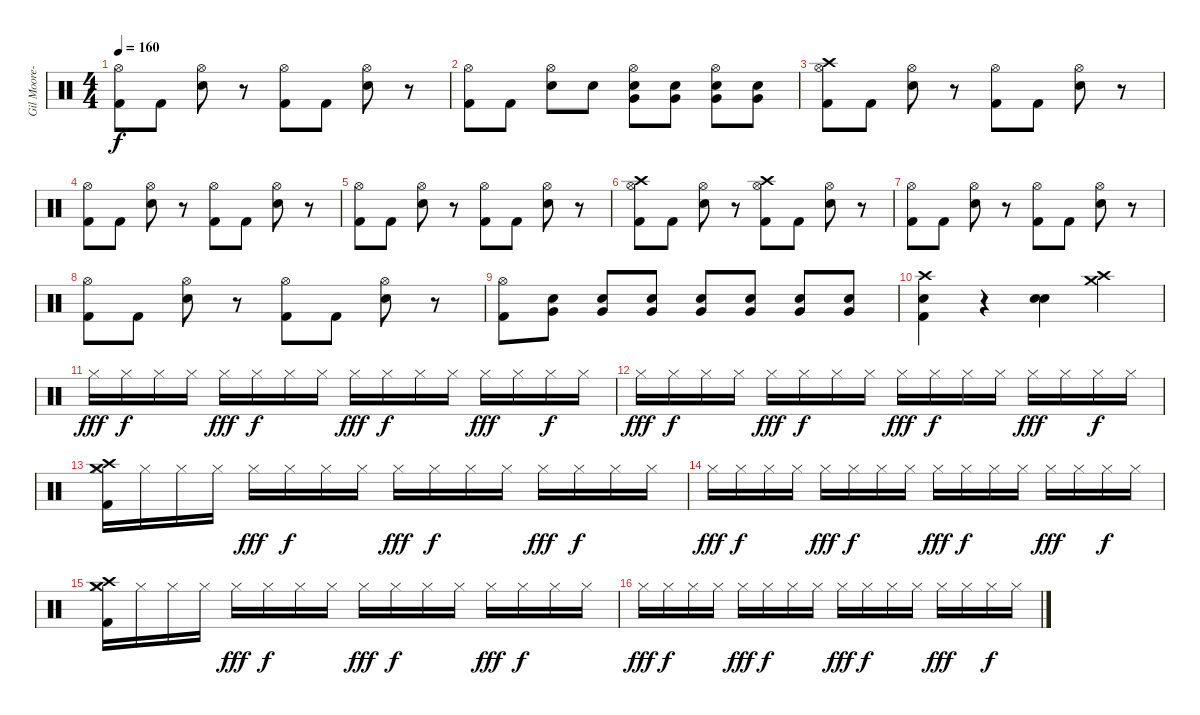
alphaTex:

\track ("Gil Moore-Drums n Vocals" "Gil Moore-") {instrument percussion}
\staff {score}
\articulation defaults
\ts (4 4)
\tempo 160
\clef neutral
\ks c
("Kick (hit) 2" "Hi-Hat (open)").8{dy f} "Kick (hit) 2".8 ("Electric Snare (hit)" "Hi-Hat (open)").8 r.8 ("Kick (hit) 2" "Hi-Hat (open)").8 "Kick (hit) 2".8 ("Electric Snare (hit)" "Hi-Hat (open)").8 r.8 |
("Kick (hit) 2" "Hi-Hat (open)").8 "Kick (hit) 2".8 ("Electric Snare (hit)" "Hi-Hat (open)").8 "Electric Snare (hit)".8 ("Electric Snare (hit)" "Very Low Tom (hit)" "Hi-Hat (open)").8 ("Electric Snare (hit)" "Very Low Tom (hit)").8 ("Electric Snare (hit)" "Very Low Tom (hit)" "Hi-Hat (open)").8 ("Electric Snare (hit)" "Very Low Tom (hit)").8 |
("Kick (hit) 2" "Hi-Hat (open)" "Crash high (hit)").8 "Kick (hit) 2".8 ("Electric Snare (hit)" "Hi-Hat (open)").8 r.8 ("Kick (hit) 2" "Hi-Hat (open)").8 "Kick (hit) 2".8 ("Electric Snare (hit)" "Hi-Hat (open)").8 r.8 |
("Kick (hit) 2" "Hi-Hat (open)").8 "Kick (hit) 2".8 ("Electric Snare (hit)" "Hi-Hat (open)").8 r.8 ("Kick (hit) 2" "Hi-Hat (open)").8 "Kick (hit) 2".8 ("Electric Snare (hit)" "Hi-Hat (open)").8 r.8 |
("Kick (hit) 2" "Hi-Hat (open)").8 "Kick (hit) 2".8 ("Electric Snare (hit)" "Hi-Hat (open)").8 r.8 ("Kick (hit) 2" "Hi-Hat (open)").8 "Kick (hit) 2".8 ("Electric Snare (hit)" "Hi-Hat (open)").8 r.8 |
("Kick (hit) 2" "Hi-Hat (open)" "Crash high (hit)").8 "Kick (hit) 2".8 ("Electric Snare (hit)" "Hi-Hat (open)").8 r.8 ("Kick (hit) 2" "Hi-Hat (open)" "Crash high (hit)").8 "Kick (hit) 2".8 ("Electric Snare (hit)" "Hi-Hat (open)").8 r.8 |
("Kick (hit) 2" "Hi-Hat (open)").8 "Kick (hit) 2".8 ("Electric Snare (hit)" "Hi-Hat (open)").8 r.8 ("Kick (hit) 2" "Hi-Hat (open)").8 "Kick (hit) 2".8 ("Electric Snare (hit)" "Hi-Hat (open)").8 r.8 |
("Kick (hit) 2" "Hi-Hat (open)").8 "Kick (hit) 2".8 ("Electric Snare (hit)" "Hi-Hat (open)").8 r.8 ("Kick (hit) 2" "Hi-Hat (open)").8 "Kick (hit) 2".8 ("Electric Snare (hit)" "Hi-Hat (open)").8 r.8 |
("Kick (hit) 2" "Hi-Hat (open)").8 ("Electric Snare (hit)" "Very Low Tom (hit)").8 ("Electric Snare (hit)" "Very Low Tom (hit)").8 ("Electric Snare (hit)" "Very Low Tom (hit)").8 ("Electric Snare (hit)" "Very Low Tom (hit)").8 ("Electric Snare (hit)" "Very Low Tom (hit)").8 ("Electric Snare (hit)" "Very Low Tom (hit)").8 ("Electric Snare (hit)" "Very Low Tom (hit)").8 |
("Kick (hit) 2" "Electric Snare (hit)" "Crash high (hit)").4 r.4 ("Electric Snare (hit)" "Electric Snare (hit)").4 ("Crash high (hit)" "Crash medium (hit)").4 |
"Hi-Hat (closed)".16{dy fff} "Hi-Hat (closed)".16{dy f} "Hi-Hat (closed)".16 "Hi-Hat (closed)".16 "Hi-Hat (closed)".16{dy fff} "Hi-Hat (closed)".16{dy f} "Hi-Hat (closed)".16 "Hi-Hat (closed)".16 "Hi-Hat (closed)".16{dy fff} "Hi-Hat (closed)".16{dy f} "Hi-Hat (closed)".16 "Hi-Hat (closed)".16 "Hi-Hat (closed)".16{dy fff} "Hi-Hat (closed)".16 "Hi-Hat (closed)".16{dy f} "Hi-Hat (closed)".16 |
"Hi-Hat (closed)".16{dy fff} "Hi-Hat (closed)".16{dy f} "Hi-Hat (closed)".16 "Hi-Hat (closed)".16 "Hi-Hat (closed)".16{dy fff} "Hi-Hat (closed)".16{dy f} "Hi-Hat (closed)".16 "Hi-Hat (closed)".16 "Hi-Hat (closed)".16{dy fff} "Hi-Hat (closed)".16{dy f} "Hi-Hat (closed)".16 "Hi-Hat (closed)".16 "Hi-Hat (closed)".16{dy fff} "Hi-Hat (closed)".16 "Hi-Hat (closed)".16{dy f} "Hi-Hat (closed)".16 |
("Hi-Hat (closed)" "Kick (hit) 2" "Crash high (hit)" "Crash medium (hit)").16 "Hi-Hat (closed)".16 "Hi-Hat (closed)".16 "Hi-Hat (closed)".16 "Hi-Hat (closed)".16{dy fff} "Hi-Hat (closed)".16{dy f} "Hi-Hat (closed)".16 "Hi-Hat (closed)".16 "Hi-Hat (closed)".16{dy fff} "Hi-Hat (closed)".16{dy f} "Hi-Hat (closed)".16 "Hi-Hat (closed)".16 "Hi-Hat (closed)".16{dy fff} "Hi-Hat (closed)".16{dy f} "Hi-Hat (closed)".16 "Hi-Hat (closed)".16 |
"Hi-Hat (closed)".16{dy fff} "Hi-Hat (closed)".16{dy f} "Hi-Hat (closed)".16 "Hi-Hat (closed)".16 "Hi-Hat (closed)".16{dy fff} "Hi-Hat (closed)".16{dy f} "Hi-Hat (closed)".16 "Hi-Hat (closed)".16 "Hi-Hat (closed)".16{dy fff} "Hi-Hat (closed)".16{dy f} "Hi-Hat (closed)".16 "Hi-Hat (closed)".16 "Hi-Hat (closed)".16{dy fff} "Hi-Hat (closed)".16 "Hi-Hat (closed)".16{dy f} "Hi-Hat (closed)".16 |
("Hi-Hat (closed)" "Crash high (hit)" "Kick (hit) 2" "Crash medium (hit)").16 "Hi-Hat (closed)".16 "Hi-Hat (closed)".16 "Hi-Hat (closed)".16 "Hi-Hat (closed)".16{dy fff} "Hi-Hat (closed)".16{dy f} "Hi-Hat (closed)".16 "Hi-Hat (closed)".16 "Hi-Hat (closed)".16{dy fff} "Hi-Hat (closed)".16{dy f} "Hi-Hat (closed)".16 "Hi-Hat (closed)".16 "Hi-Hat (closed)".16{dy fff} "Hi-Hat (closed)".16{dy f} "Hi-Hat (closed)".16 "Hi-Hat (closed)".16 |
"Hi-Hat (closed)".16{dy fff} "Hi-Hat (closed)".16{dy f} "Hi-Hat (closed)".16 "Hi-Hat (closed)".16 "Hi-Hat (closed)".16{dy fff} "Hi-Hat (closed)".16{dy f} "Hi-Hat (closed)".16 "Hi-Hat (closed)".16 "Hi-Hat (closed)".16{dy fff} "Hi-Hat (closed)".16{dy f} "Hi-Hat (closed)".16 "Hi-Hat (closed)".16 "Hi-Hat (closed)".16{dy fff} "Hi-Hat (closed)".16 "Hi-Hat (closed)".16{dy f} "Hi-Hat (closed)".16
